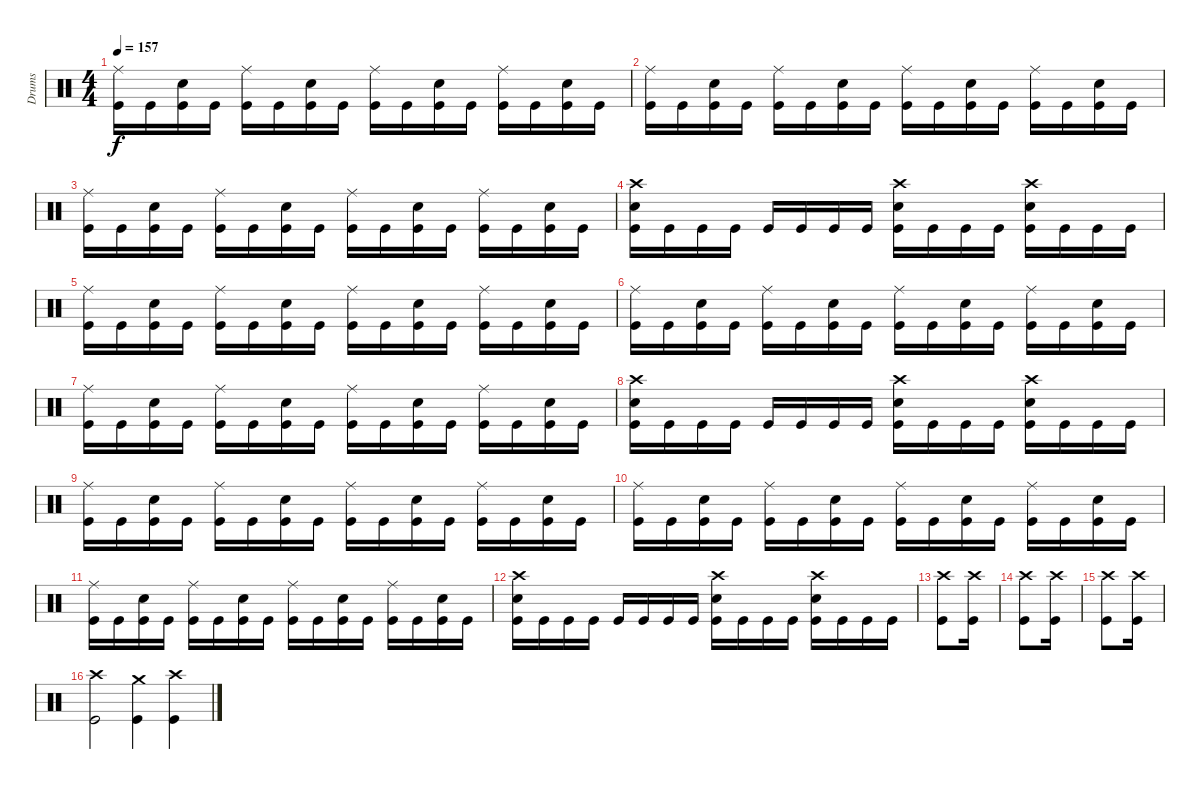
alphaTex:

\track ("Drums" "Drums") {instrument percussion}
\staff {score}
\articulation defaults
\ts (4 4)
\tempo 157
\clef neutral
\ks c
("Ride (middle)" "Kick (hit)").16{dy f} "Kick (hit)".16 ("Snare (hit) 2" "Kick (hit)").16 "Kick (hit)".16 ("Ride (middle)" "Kick (hit)").16 "Kick (hit)".16 ("Snare (hit) 2" "Kick (hit)").16 "Kick (hit)".16 ("Ride (middle)" "Kick (hit)").16 "Kick (hit)".16 ("Snare (hit) 2" "Kick (hit)").16 "Kick (hit)".16 ("Ride (middle)" "Kick (hit)").16 "Kick (hit)".16 ("Snare (hit) 2" "Kick (hit)").16 "Kick (hit)".16 |
("Ride (middle)" "Kick (hit)").16 "Kick (hit)".16 ("Snare (hit) 2" "Kick (hit)").16 "Kick (hit)".16 ("Ride (middle)" "Kick (hit)").16 "Kick (hit)".16 ("Snare (hit) 2" "Kick (hit)").16 "Kick (hit)".16 ("Ride (middle)" "Kick (hit)").16 "Kick (hit)".16 ("Snare (hit) 2" "Kick (hit)").16 "Kick (hit)".16 ("Ride (middle)" "Kick (hit)").16 "Kick (hit)".16 ("Snare (hit) 2" "Kick (hit)").16 "Kick (hit)".16 |
("Ride (middle)" "Kick (hit)").16 "Kick (hit)".16 ("Snare (hit) 2" "Kick (hit)").16 "Kick (hit)".16 ("Ride (middle)" "Kick (hit)").16 "Kick (hit)".16 ("Snare (hit) 2" "Kick (hit)").16 "Kick (hit)".16 ("Ride (middle)" "Kick (hit)").16 "Kick (hit)".16 ("Snare (hit) 2" "Kick (hit)").16 "Kick (hit)".16 ("Ride (middle)" "Kick (hit)").16 "Kick (hit)".16 ("Snare (hit) 2" "Kick (hit)").16 "Kick (hit)".16 |
("Snare (hit) 2" "Crash high (hit)" "Kick (hit)").16 "Kick (hit)".16 "Kick (hit)".16 "Kick (hit)".16 "Kick (hit)".16 "Kick (hit)".16 "Kick (hit)".16 "Kick (hit)".16 ("Snare (hit) 2" "Crash high (hit)" "Kick (hit)").16 "Kick (hit)".16 "Kick (hit)".16 "Kick (hit)".16 ("Snare (hit) 2" "Crash high (hit)" "Kick (hit)").16 "Kick (hit)".16 "Kick (hit)".16 "Kick (hit)".16 |
("Ride (middle)" "Kick (hit)").16 "Kick (hit)".16 ("Snare (hit) 2" "Kick (hit)").16 "Kick (hit)".16 ("Ride (middle)" "Kick (hit)").16 "Kick (hit)".16 ("Snare (hit) 2" "Kick (hit)").16 "Kick (hit)".16 ("Ride (middle)" "Kick (hit)").16 "Kick (hit)".16 ("Snare (hit) 2" "Kick (hit)").16 "Kick (hit)".16 ("Ride (middle)" "Kick (hit)").16 "Kick (hit)".16 ("Snare (hit) 2" "Kick (hit)").16 "Kick (hit)".16 |
("Ride (middle)" "Kick (hit)").16 "Kick (hit)".16 ("Snare (hit) 2" "Kick (hit)").16 "Kick (hit)".16 ("Ride (middle)" "Kick (hit)").16 "Kick (hit)".16 ("Snare (hit) 2" "Kick (hit)").16 "Kick (hit)".16 ("Ride (middle)" "Kick (hit)").16 "Kick (hit)".16 ("Snare (hit) 2" "Kick (hit)").16 "Kick (hit)".16 ("Ride (middle)" "Kick (hit)").16 "Kick (hit)".16 ("Snare (hit) 2" "Kick (hit)").16 "Kick (hit)".16 |
("Ride (middle)" "Kick (hit)").16 "Kick (hit)".16 ("Snare (hit) 2" "Kick (hit)").16 "Kick (hit)".16 ("Ride (middle)" "Kick (hit)").16 "Kick (hit)".16 ("Snare (hit) 2" "Kick (hit)").16 "Kick (hit)".16 ("Ride (middle)" "Kick (hit)").16 "Kick (hit)".16 ("Snare (hit) 2" "Kick (hit)").16 "Kick (hit)".16 ("Ride (middle)" "Kick (hit)").16 "Kick (hit)".16 ("Snare (hit) 2" "Kick (hit)").16 "Kick (hit)".16 |
("Snare (hit) 2" "Crash high (hit)" "Kick (hit)").16 "Kick (hit)".16 "Kick (hit)".16 "Kick (hit)".16 "Kick (hit)".16 "Kick (hit)".16 "Kick (hit)".16 "Kick (hit)".16 ("Snare (hit) 2" "Crash high (hit)" "Kick (hit)").16 "Kick (hit)".16 "Kick (hit)".16 "Kick (hit)".16 ("Snare (hit) 2" "Crash high (hit)" "Kick (hit)").16 "Kick (hit)".16 "Kick (hit)".16 "Kick (hit)".16 |
("Ride (middle)" "Kick (hit)").16 "Kick (hit)".16 ("Snare (hit) 2" "Kick (hit)").16 "Kick (hit)".16 ("Ride (middle)" "Kick (hit)").16 "Kick (hit)".16 ("Snare (hit) 2" "Kick (hit)").16 "Kick (hit)".16 ("Ride (middle)" "Kick (hit)").16 "Kick (hit)".16 ("Snare (hit) 2" "Kick (hit)").16 "Kick (hit)".16 ("Ride (middle)" "Kick (hit)").16 "Kick (hit)".16 ("Snare (hit) 2" "Kick (hit)").16 "Kick (hit)".16 |
("Ride (middle)" "Kick (hit)").16 "Kick (hit)".16 ("Snare (hit) 2" "Kick (hit)").16 "Kick (hit)".16 ("Ride (middle)" "Kick (hit)").16 "Kick (hit)".16 ("Snare (hit) 2" "Kick (hit)").16 "Kick (hit)".16 ("Ride (middle)" "Kick (hit)").16 "Kick (hit)".16 ("Snare (hit) 2" "Kick (hit)").16 "Kick (hit)".16 ("Ride (middle)" "Kick (hit)").16 "Kick (hit)".16 ("Snare (hit) 2" "Kick (hit)").16 "Kick (hit)".16 |
("Ride (middle)" "Kick (hit)").16 "Kick (hit)".16 ("Snare (hit) 2" "Kick (hit)").16 "Kick (hit)".16 ("Ride (middle)" "Kick (hit)").16 "Kick (hit)".16 ("Snare (hit) 2" "Kick (hit)").16 "Kick (hit)".16 ("Ride (middle)" "Kick (hit)").16 "Kick (hit)".16 ("Snare (hit) 2" "Kick (hit)").16 "Kick (hit)".16 ("Ride (middle)" "Kick (hit)").16 "Kick (hit)".16 ("Snare (hit) 2" "Kick (hit)").16 "Kick (hit)".16 |
("Snare (hit) 2" "Crash high (hit)" "Kick (hit)").16 "Kick (hit)".16 "Kick (hit)".16 "Kick (hit)".16 "Kick (hit)".16 "Kick (hit)".16 "Kick (hit)".16 "Kick (hit)".16 ("Snare (hit) 2" "Crash high (hit)" "Kick (hit)").16 "Kick (hit)".16 "Kick (hit)".16 "Kick (hit)".16 ("Snare (hit) 2" "Crash high (hit)" "Kick (hit)").16 "Kick (hit)".16 "Kick (hit)".16 "Kick (hit)".16 |
("Crash high (hit)" "Kick (hit)").8 ("Crash high (hit)" "Kick (hit)").16 |
("Crash high (hit)" "Kick (hit)").8 ("Crash high (hit)" "Kick (hit)").16 |
("Crash high (hit)" "Kick (hit)").8 ("Crash high (hit)" "Kick (hit)").16 |
("Crash high (hit)" "Kick (hit)").2 ("Crash medium (hit)" "Kick (hit)").4 ("Crash high (hit)" "Kick (hit)").4
